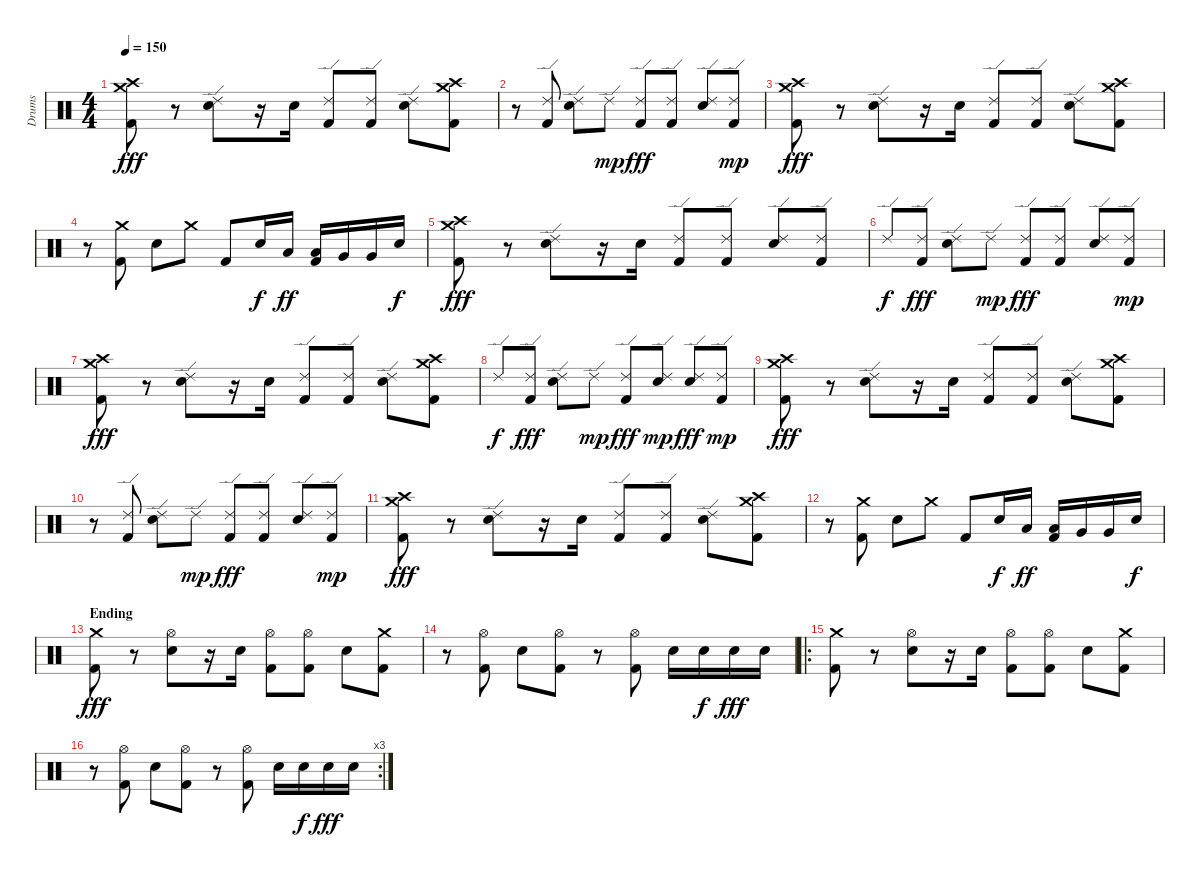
\track ("Drums" "Drums") {instrument percussion}
\staff {score}
\articulation defaults
\ts (4 4)
\tempo 150
\clef neutral
\ks c
("Crash high (hit)" "Crash medium (hit)" "Kick (hit) 2").8{dy fff} r.8 ("Ride (edge) 2" "Electric Snare (hit)").8 r.16 "Electric Snare (hit)".16 ("Ride (edge) 2" "Kick (hit) 2").8 ("Ride (edge) 2" "Kick (hit) 2").8 ("Ride (edge) 2" "Electric Snare (hit)").8 ("Crash medium (hit)" "Crash high (hit)" "Kick (hit) 2").8 |
r.8 ("Ride (edge) 2" "Kick (hit) 2").8 ("Ride (edge) 2" "Electric Snare (hit)").8 "Ride (edge) 2".8{dy mp} ("Ride (edge) 2" "Kick (hit) 2").8{dy fff} ("Ride (edge) 2" "Kick (hit) 2").8 ("Ride (edge) 2" "Electric Snare (hit)").8 ("Ride (edge) 2" "Kick (hit) 2").8{dy mp} |
("Crash high (hit)" "Crash medium (hit)" "Kick (hit) 2").8{dy fff} r.8 ("Ride (edge) 2" "Electric Snare (hit)").8 r.16 "Electric Snare (hit)".16 ("Ride (edge) 2" "Kick (hit) 2").8 ("Ride (edge) 2" "Kick (hit) 2").8 ("Ride (edge) 2" "Electric Snare (hit)").8 ("Crash high (hit)" "Crash medium (hit)" "Kick (hit) 2").8 |
r.8 ("Crash medium (hit)" "Kick (hit) 2").8 "Electric Snare (hit)".8 "Crash medium (hit)".8 "Kick (hit) 2".8 "Electric Snare (hit)".16{dy f} "Low Tom (hit)".16{dy ff} ("Low Tom (hit)" "Kick (hit) 2").16 "Very Low Tom (hit)".16 "Very Low Tom (hit)".16 "Electric Snare (hit)".16{dy f} |
("Crash high (hit)" "Crash medium (hit)" "Kick (hit) 2").8{dy fff} r.8 ("Ride (edge) 2" "Electric Snare (hit)").8 r.16 "Electric Snare (hit)".16 ("Ride (edge) 2" "Kick (hit) 2").8 ("Ride (edge) 2" "Kick (hit) 2").8 ("Ride (edge) 2" "Electric Snare (hit)").8 ("Ride (edge) 2" "Kick (hit) 2").8 |
"Ride (edge) 2".8{dy f} ("Ride (edge) 2" "Kick (hit) 2").8{dy fff} ("Ride (edge) 2" "Electric Snare (hit)").8 "Ride (edge) 2".8{dy mp} ("Ride (edge) 2" "Kick (hit) 2").8{dy fff} ("Ride (edge) 2" "Kick (hit) 2").8 ("Ride (edge) 2" "Electric Snare (hit)").8 ("Ride (edge) 2" "Kick (hit) 2").8{dy mp} |
("Crash medium (hit)" "Crash high (hit)" "Kick (hit) 2").8{dy fff} r.8 ("Ride (edge) 2" "Electric Snare (hit)").8 r.16 "Electric Snare (hit)".16 ("Ride (edge) 2" "Kick (hit) 2").8 ("Ride (edge) 2" "Kick (hit) 2").8 ("Ride (edge) 2" "Electric Snare (hit)").8 ("Crash medium (hit)" "Crash high (hit)" "Kick (hit) 2").8 |
"Ride (edge) 2".8{dy f} ("Ride (edge) 2" "Kick (hit) 2").8{dy fff} ("Ride (edge) 2" "Electric Snare (hit)").8 "Ride (edge) 2".8{dy mp} ("Ride (edge) 2" "Kick (hit) 2").8{dy fff} ("Ride (edge) 2" "Electric Snare (hit)").8{dy mp} ("Ride (edge) 2" "Electric Snare (hit)").8{dy fff} ("Ride (edge) 2" "Kick (hit) 2").8{dy mp} |
("Crash high (hit)" "Crash medium (hit)" "Kick (hit) 2").8{dy fff} r.8 ("Ride (edge) 2" "Electric Snare (hit)").8 r.16 "Electric Snare (hit)".16 ("Ride (edge) 2" "Kick (hit) 2").8 ("Ride (edge) 2" "Kick (hit) 2").8 ("Ride (edge) 2" "Electric Snare (hit)").8 ("Crash medium (hit)" "Crash high (hit)" "Kick (hit) 2").8 |
r.8 ("Ride (edge) 2" "Kick (hit) 2").8 ("Ride (edge) 2" "Electric Snare (hit)").8 "Ride (edge) 2".8{dy mp} ("Ride (edge) 2" "Kick (hit) 2").8{dy fff} ("Ride (edge) 2" "Kick (hit) 2").8 ("Ride (edge) 2" "Electric Snare (hit)").8 ("Ride (edge) 2" "Kick (hit) 2").8{dy mp} |
("Crash high (hit)" "Crash medium (hit)" "Kick (hit) 2").8{dy fff} r.8 ("Ride (edge) 2" "Electric Snare (hit)").8 r.16 "Electric Snare (hit)".16 ("Ride (edge) 2" "Kick (hit) 2").8 ("Ride (edge) 2" "Kick (hit) 2").8 ("Ride (edge) 2" "Electric Snare (hit)").8 ("Crash high (hit)" "Crash medium (hit)" "Kick (hit) 2").8 |
r.8 ("Crash medium (hit)" "Kick (hit) 2").8 "Electric Snare (hit)".8 "Crash medium (hit)".8 "Kick (hit) 2".8 "Electric Snare (hit)".16{dy f} "Low Tom (hit)".16{dy ff} ("Low Tom (hit)" "Kick (hit) 2").16 "Very Low Tom (hit)".16 "Very Low Tom (hit)".16 "Electric Snare (hit)".16{dy f} |
\section ("" "Ending")
("Crash medium (hit)" "Kick (hit) 2").8{dy fff} r.8 ("Hi-Hat (open)" "Electric Snare (hit)").8 r.16 "Electric Snare (hit)".16 ("Hi-Hat (open)" "Kick (hit) 2").8 ("Hi-Hat (open)" "Kick (hit) 2").8 "Electric Snare (hit)".8 ("Crash medium (hit)" "Kick (hit) 2").8 |
r.8 ("Hi-Hat (open)" "Kick (hit) 2").8 "Electric Snare (hit)".8 ("Hi-Hat (open)" "Kick (hit) 2").8 r.8 ("Hi-Hat (open)" "Kick (hit) 2").8 "Electric Snare (hit)".16 "Electric Snare (hit)".16{dy f} "Electric Snare (hit)".16{dy fff} "Electric Snare (hit)".16 |
\ro
("Crash medium (hit)" "Kick (hit) 2").8 r.8 ("Hi-Hat (open)" "Electric Snare (hit)").8 r.16 "Electric Snare (hit)".16 ("Hi-Hat (open)" "Kick (hit) 2").8 ("Hi-Hat (open)" "Kick (hit) 2").8 "Electric Snare (hit)".8 ("Crash medium (hit)" "Kick (hit) 2").8 |
\rc 3
r.8 ("Hi-Hat (open)" "Kick (hit) 2").8 "Electric Snare (hit)".8 ("Hi-Hat (open)" "Kick (hit) 2").8 r.8 ("Hi-Hat (open)" "Kick (hit) 2").8 "Electric Snare (hit)".16 "Electric Snare (hit)".16{dy f} "Electric Snare (hit)".16{dy fff} "Electric Snare (hit)".16
